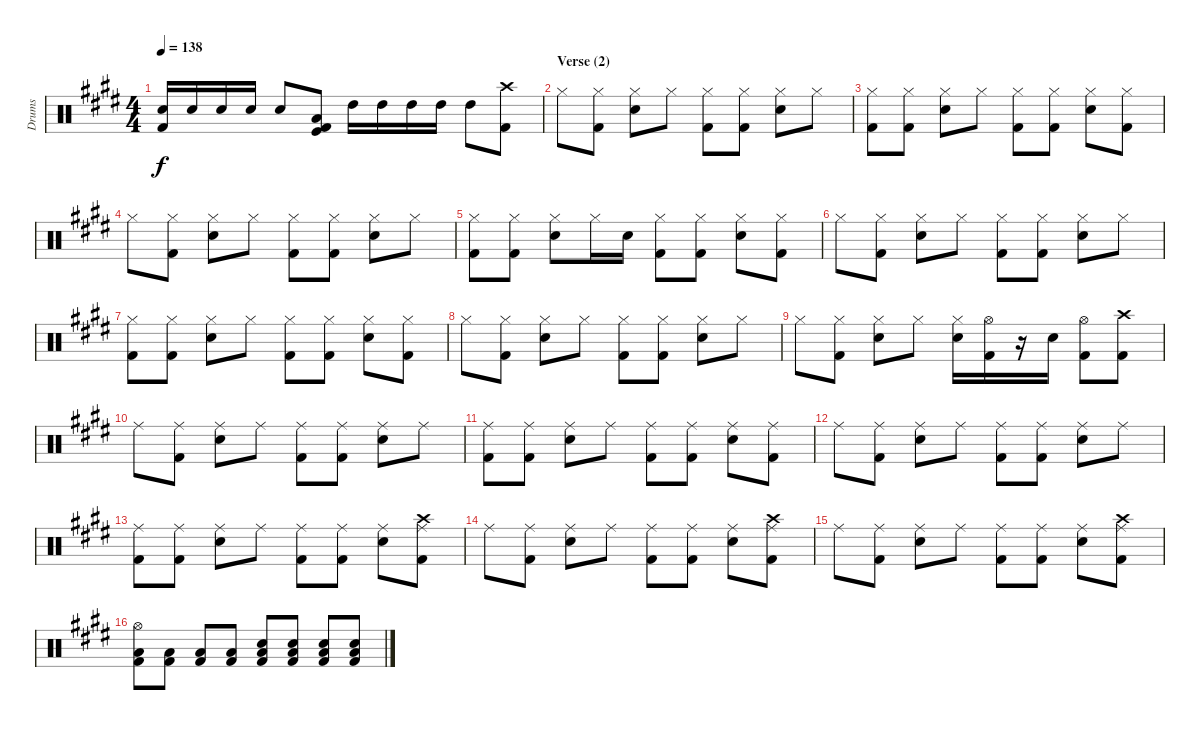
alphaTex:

\track ("Drums" "Drums") {instrument percussion}
\staff {score}
\articulation defaults
\ts (4 4)
\tempo 138
\clef neutral
\ks e
("Kick (hit) 2" "Snare (hit) 2").16{dy f} "Snare (hit) 2".16 "Snare (hit) 2".16 "Snare (hit) 2".16 "Snare (hit) 2".8 ("Kick (hit)" "Kick (hit) 2" "Low Floor Tom (hit)").8 "High Tom (hit)".16 "High Tom (hit)".16 "High Tom (hit)".16 "High Tom (hit)".16 "High Tom (hit)".8 ("Crash high (hit)" "Kick (hit) 2").8 |
\section ("" "Verse (2)")
"Hi-Hat (closed)".8 ("Kick (hit) 2" "Hi-Hat (closed)").8 ("Snare (hit) 2" "Hi-Hat (closed)").8 "Hi-Hat (closed)".8 ("Kick (hit) 2" "Hi-Hat (closed)").8 ("Kick (hit) 2" "Hi-Hat (closed)").8 ("Snare (hit) 2" "Hi-Hat (closed)").8 "Hi-Hat (closed)".8 |
("Kick (hit) 2" "Hi-Hat (closed)").8 ("Kick (hit) 2" "Hi-Hat (closed)").8 ("Snare (hit) 2" "Hi-Hat (closed)").8 "Hi-Hat (closed)".8 ("Kick (hit) 2" "Hi-Hat (closed)").8 ("Kick (hit) 2" "Hi-Hat (closed)").8 ("Snare (hit) 2" "Hi-Hat (closed)").8 ("Kick (hit) 2" "Hi-Hat (closed)").8 |
"Hi-Hat (closed)".8 ("Kick (hit) 2" "Hi-Hat (closed)").8 ("Snare (hit) 2" "Hi-Hat (closed)").8 "Hi-Hat (closed)".8 ("Kick (hit) 2" "Hi-Hat (closed)").8 ("Kick (hit) 2" "Hi-Hat (closed)").8 ("Snare (hit) 2" "Hi-Hat (closed)").8 "Hi-Hat (closed)".8 |
("Kick (hit) 2" "Hi-Hat (closed)").8 ("Kick (hit) 2" "Hi-Hat (closed)").8 ("Snare (hit) 2" "Hi-Hat (closed)").8 "Hi-Hat (closed)".16 "Snare (hit) 2".16 ("Kick (hit) 2" "Hi-Hat (closed)").8 ("Kick (hit) 2" "Hi-Hat (closed)").8 ("Snare (hit) 2" "Hi-Hat (closed)").8 ("Kick (hit) 2" "Hi-Hat (closed)").8 |
"Hi-Hat (closed)".8 ("Kick (hit) 2" "Hi-Hat (closed)").8 ("Snare (hit) 2" "Hi-Hat (closed)").8 "Hi-Hat (closed)".8 ("Kick (hit) 2" "Hi-Hat (closed)").8 ("Kick (hit) 2" "Hi-Hat (closed)").8 ("Snare (hit) 2" "Hi-Hat (closed)").8 "Hi-Hat (closed)".8 |
("Kick (hit) 2" "Hi-Hat (closed)").8 ("Kick (hit) 2" "Hi-Hat (closed)").8 ("Snare (hit) 2" "Hi-Hat (closed)").8 "Hi-Hat (closed)".8 ("Kick (hit) 2" "Hi-Hat (closed)").8 ("Kick (hit) 2" "Hi-Hat (closed)").8 ("Snare (hit) 2" "Hi-Hat (closed)").8 ("Kick (hit) 2" "Hi-Hat (closed)").8 |
"Hi-Hat (closed)".8 ("Kick (hit) 2" "Hi-Hat (closed)").8 ("Snare (hit) 2" "Hi-Hat (closed)").8 "Hi-Hat (closed)".8 ("Kick (hit) 2" "Hi-Hat (closed)").8 ("Kick (hit) 2" "Hi-Hat (closed)").8 ("Snare (hit) 2" "Hi-Hat (closed)").8 "Hi-Hat (closed)".8 |
"Hi-Hat (closed)".8 ("Kick (hit) 2" "Hi-Hat (closed)").8 ("Snare (hit) 2" "Hi-Hat (closed)").8 "Hi-Hat (closed)".8 ("Snare (hit) 2" "Hi-Hat (closed)").16 ("Hi-Hat (open)" "Kick (hit) 2").16 r.16 "Snare (hit) 2".16 ("Hi-Hat (open)" "Kick (hit) 2").8 ("Crash high (hit)" "Kick (hit) 2").8 |
"Ride (middle)".8 ("Kick (hit) 2" "Ride (middle)").8 ("Snare (hit) 2" "Ride (middle)").8 "Ride (middle)".8 ("Kick (hit) 2" "Ride (middle)").8 ("Kick (hit) 2" "Ride (middle)").8 ("Snare (hit) 2" "Ride (middle)").8 "Ride (middle)".8 |
("Kick (hit) 2" "Ride (middle)").8 ("Kick (hit) 2" "Ride (middle)").8 ("Snare (hit) 2" "Ride (middle)").8 "Ride (middle)".8 ("Kick (hit) 2" "Ride (middle)").8 ("Kick (hit) 2" "Ride (middle)").8 ("Snare (hit) 2" "Ride (middle)").8 ("Kick (hit) 2" "Ride (middle)").8 |
"Ride (middle)".8 ("Kick (hit) 2" "Ride (middle)").8 ("Snare (hit) 2" "Ride (middle)").8 "Ride (middle)".8 ("Kick (hit) 2" "Ride (middle)").8 ("Kick (hit) 2" "Ride (middle)").8 ("Snare (hit) 2" "Ride (middle)").8 "Ride (middle)".8 |
("Kick (hit) 2" "Ride (middle)").8 ("Kick (hit) 2" "Ride (middle)").8 ("Snare (hit) 2" "Ride (middle)").8 "Ride (middle)".8 ("Kick (hit) 2" "Ride (middle)").8 ("Kick (hit) 2" "Ride (middle)").8 ("Snare (hit) 2" "Ride (middle)").8 ("Crash high (hit)" "Kick (hit) 2" "Ride (middle)").8 |
"Ride (middle)".8 ("Kick (hit) 2" "Ride (middle)").8 ("Snare (hit) 2" "Ride (middle)").8 "Ride (middle)".8 ("Kick (hit) 2" "Ride (middle)").8 ("Kick (hit) 2" "Ride (middle)").8 ("Snare (hit) 2" "Ride (middle)").8 ("Crash high (hit)" "Kick (hit) 2" "Ride (middle)").8 |
"Ride (middle)".8 ("Kick (hit) 2" "Ride (middle)").8 ("Snare (hit) 2" "Ride (middle)").8 "Ride (middle)".8 ("Kick (hit) 2" "Ride (middle)").8 ("Kick (hit) 2" "Ride (middle)").8 ("Snare (hit) 2" "Ride (middle)").8 ("Crash high (hit)" "Kick (hit) 2" "Ride (middle)").8 |
("Hi-Hat (open)" "Low Floor Tom (hit)" "Kick (hit) 2").8 ("Low Floor Tom (hit)" "Kick (hit) 2").8 ("Low Floor Tom (hit)" "Kick (hit) 2").8 ("Low Floor Tom (hit)" "Kick (hit) 2").8 ("Low Floor Tom (hit)" "Kick (hit) 2" "Snare (hit) 2").8 ("Low Floor Tom (hit)" "Kick (hit) 2" "Snare (hit) 2").8 ("Low Floor Tom (hit)" "Kick (hit) 2" "Snare (hit) 2").8 ("Low Floor Tom (hit)" "Kick (hit) 2" "Snare (hit) 2").8
